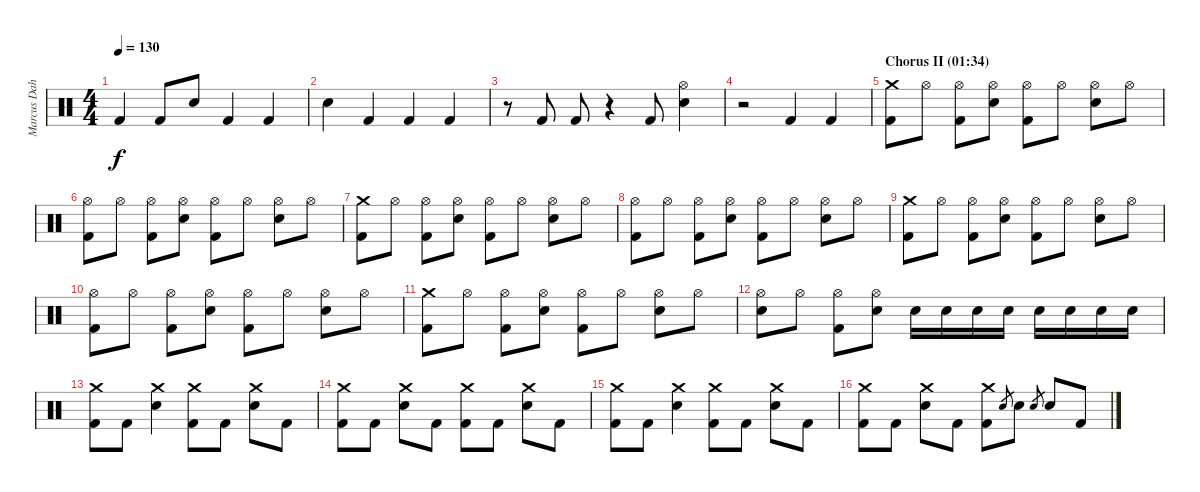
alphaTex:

\track ("Marcus Dahlström" "Marcus Dah") {instrument percussion}
\staff {score}
\articulation defaults
\ts (4 4)
\tempo 130
\clef neutral
\ks c "Kick (hit) 2".4{dy f} "Kick (hit) 2".8 "Electric Snare (hit)".8 "Kick (hit) 2".4 "Kick (hit) 2".4
|
"Electric Snare (hit)".4 "Kick (hit) 2".4 "Kick (hit) 2".4 "Kick (hit) 2".4 |
r.8 "Kick (hit) 2".8 "Kick (hit) 2".8 r.4 "Kick (hit) 2".8 ("Hi-Hat (open)" "Electric Snare (hit)").4 |
r.2 "Kick (hit) 2".4 "Kick (hit) 2".4 |
\section ("" "Chorus II (01:34)")
("Crash medium (hit)" "Kick (hit) 2").8 "Hi-Hat (open)".8 ("Hi-Hat (open)" "Kick (hit) 2").8 ("Hi-Hat (open)" "Electric Snare (hit)").8 ("Hi-Hat (open)" "Kick (hit) 2").8 "Hi-Hat (open)".8 ("Hi-Hat (open)" "Electric Snare (hit)").8 "Hi-Hat (open)".8 |
("Hi-Hat (open)" "Kick (hit) 2").8 "Hi-Hat (open)".8 ("Hi-Hat (open)" "Kick (hit) 2").8 ("Hi-Hat (open)" "Electric Snare (hit)").8 ("Hi-Hat (open)" "Kick (hit) 2").8 "Hi-Hat (open)".8 ("Hi-Hat (open)" "Electric Snare (hit)").8 "Hi-Hat (open)".8 |
("Crash medium (hit)" "Kick (hit) 2").8 "Hi-Hat (open)".8 ("Hi-Hat (open)" "Kick (hit) 2").8 ("Hi-Hat (open)" "Electric Snare (hit)").8 ("Hi-Hat (open)" "Kick (hit) 2").8 "Hi-Hat (open)".8 ("Hi-Hat (open)" "Electric Snare (hit)").8 "Hi-Hat (open)".8 |
("Hi-Hat (open)" "Kick (hit) 2").8 "Hi-Hat (open)".8 ("Hi-Hat (open)" "Kick (hit) 2").8 ("Hi-Hat (open)" "Electric Snare (hit)").8 ("Hi-Hat (open)" "Kick (hit) 2").8 "Hi-Hat (open)".8 ("Hi-Hat (open)" "Electric Snare (hit)").8 "Hi-Hat (open)".8 |
("Crash medium (hit)" "Kick (hit) 2").8 "Hi-Hat (open)".8 ("Hi-Hat (open)" "Kick (hit) 2").8 ("Hi-Hat (open)" "Electric Snare (hit)").8 ("Hi-Hat (open)" "Kick (hit) 2").8 "Hi-Hat (open)".8 ("Hi-Hat (open)" "Electric Snare (hit)").8 "Hi-Hat (open)".8 |
("Hi-Hat (open)" "Kick (hit) 2").8 "Hi-Hat (open)".8 ("Hi-Hat (open)" "Kick (hit) 2").8 ("Hi-Hat (open)" "Electric Snare (hit)").8 ("Hi-Hat (open)" "Kick (hit) 2").8 "Hi-Hat (open)".8 ("Hi-Hat (open)" "Electric Snare (hit)").8 "Hi-Hat (open)".8 |
("Crash medium (hit)" "Kick (hit) 2").8 "Hi-Hat (open)".8 ("Hi-Hat (open)" "Kick (hit) 2").8 ("Hi-Hat (open)" "Electric Snare (hit)").8 ("Hi-Hat (open)" "Kick (hit) 2").8 "Hi-Hat (open)".8 ("Hi-Hat (open)" "Electric Snare (hit)").8 "Hi-Hat (open)".8 |
("Hi-Hat (open)" "Electric Snare (hit)").8 "Hi-Hat (open)".8 ("Hi-Hat (open)" "Kick (hit) 2").8 ("Hi-Hat (open)" "Electric Snare (hit)").8 "Electric Snare (hit)".16 "Electric Snare (hit)".16 "Electric Snare (hit)".16 "Electric Snare (hit)".16 "Electric Snare (hit)".16 "Electric Snare (hit)".16 "Electric Snare (hit)".16 "Electric Snare (hit)".16 |
("Crash medium (hit)" "Kick (hit) 2").8 "Kick (hit) 2".8 ("Crash medium (hit)" "Electric Snare (hit)").4 ("Crash medium (hit)" "Kick (hit) 2").8 "Kick (hit) 2".8 ("Crash medium (hit)" "Electric Snare (hit)").8 "Kick (hit) 2".8 |
("Crash medium (hit)" "Kick (hit) 2").8 "Kick (hit) 2".8 ("Crash medium (hit)" "Electric Snare (hit)").8 "Kick (hit) 2".8 ("Crash medium (hit)" "Kick (hit) 2").8 "Kick (hit) 2".8 ("Crash medium (hit)" "Electric Snare (hit)").8 "Kick (hit) 2".8 |
("Crash medium (hit)" "Kick (hit) 2").8 "Kick (hit) 2".8 ("Crash medium (hit)" "Electric Snare (hit)").4 ("Crash medium (hit)" "Kick (hit) 2").8 "Kick (hit) 2".8 ("Crash medium (hit)" "Electric Snare (hit)").8 "Kick (hit) 2".8 |
("Crash medium (hit)" "Kick (hit) 2").8 "Kick (hit) 2".8 ("Crash medium (hit)" "Electric Snare (hit)").8 "Kick (hit) 2".8 ("Crash medium (hit)" "Kick (hit) 2").8 "Electric Snare (hit)".8{gr} "Electric Snare (hit)".8 "Electric Snare (hit)".8{gr} "Electric Snare (hit)".8 "Kick (hit) 2".8
